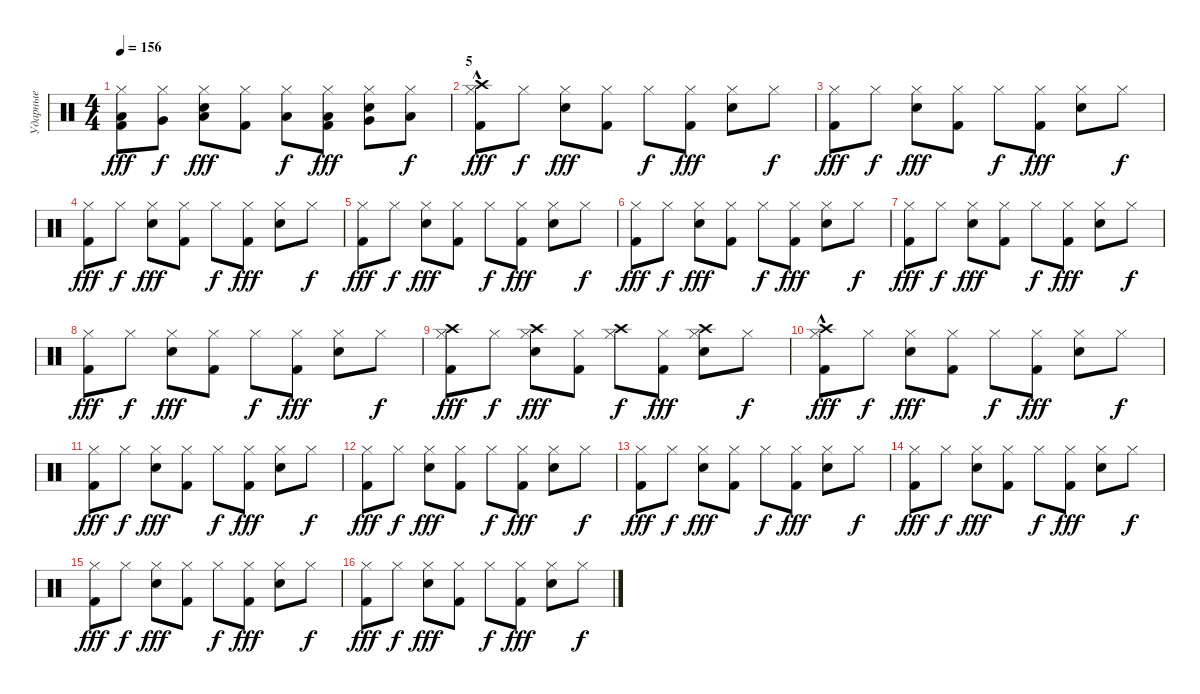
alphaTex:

\track ("Ударные" "Ударные") {instrument percussion}
\staff {score}
\articulation defaults
\ts (4 4)
\tempo 156
\clef neutral
\ks c
("Hi-Hat (closed)" "Kick (hit) 2" "Low Floor Tom (hit)").8{dy fff} ("Hi-Hat (closed)" "Very Low Tom (hit)").8{dy f} ("Hi-Hat (closed)" "Snare (hit) 2" "Low Tom (hit)").8{dy fff} ("Hi-Hat (closed)" "Kick (hit) 2").8 ("Hi-Hat (closed)" "Low Floor Tom (hit)").8{dy f} ("Hi-Hat (closed)" "Kick (hit) 2" "Low Floor Tom (hit)").8{dy fff} ("Hi-Hat (closed)" "Snare (hit) 2" "Very Low Tom (hit)").8 ("Hi-Hat (closed)" "Low Tom (hit)").8{dy f} |
\section ("" "5")
("Hi-Hat (closed)" "Kick (hit) 2" "Crash high (hit)"{hac}).8{dy fff} "Hi-Hat (closed)".8{dy f} ("Hi-Hat (closed)" "Snare (hit) 2").8{dy fff} ("Hi-Hat (closed)" "Kick (hit) 2").8 "Hi-Hat (closed)".8{dy f} ("Hi-Hat (closed)" "Kick (hit) 2").8{dy fff} ("Hi-Hat (closed)" "Snare (hit) 2").8 "Hi-Hat (closed)".8{dy f} |
("Hi-Hat (closed)" "Kick (hit) 2").8{dy fff} "Hi-Hat (closed)".8{dy f} ("Hi-Hat (closed)" "Snare (hit) 2").8{dy fff} ("Hi-Hat (closed)" "Kick (hit) 2").8 "Hi-Hat (closed)".8{dy f} ("Hi-Hat (closed)" "Kick (hit) 2").8{dy fff} ("Hi-Hat (closed)" "Snare (hit) 2").8 "Hi-Hat (closed)".8{dy f} |
("Hi-Hat (closed)" "Kick (hit) 2").8{dy fff} "Hi-Hat (closed)".8{dy f} ("Hi-Hat (closed)" "Snare (hit) 2").8{dy fff} ("Hi-Hat (closed)" "Kick (hit) 2").8 "Hi-Hat (closed)".8{dy f} ("Hi-Hat (closed)" "Kick (hit) 2").8{dy fff} ("Hi-Hat (closed)" "Snare (hit) 2").8 "Hi-Hat (closed)".8{dy f} |
("Hi-Hat (closed)" "Kick (hit) 2").8{dy fff} "Hi-Hat (closed)".8{dy f} ("Hi-Hat (closed)" "Snare (hit) 2").8{dy fff} ("Hi-Hat (closed)" "Kick (hit) 2").8 "Hi-Hat (closed)".8{dy f} ("Hi-Hat (closed)" "Kick (hit) 2").8{dy fff} ("Hi-Hat (closed)" "Snare (hit) 2").8 "Hi-Hat (closed)".8{dy f} |
("Hi-Hat (closed)" "Kick (hit) 2").8{dy fff} "Hi-Hat (closed)".8{dy f} ("Hi-Hat (closed)" "Snare (hit) 2").8{dy fff} ("Hi-Hat (closed)" "Kick (hit) 2").8 "Hi-Hat (closed)".8{dy f} ("Hi-Hat (closed)" "Kick (hit) 2").8{dy fff} ("Hi-Hat (closed)" "Snare (hit) 2").8 "Hi-Hat (closed)".8{dy f} |
("Hi-Hat (closed)" "Kick (hit) 2").8{dy fff} "Hi-Hat (closed)".8{dy f} ("Hi-Hat (closed)" "Snare (hit) 2").8{dy fff} ("Hi-Hat (closed)" "Kick (hit) 2").8 "Hi-Hat (closed)".8{dy f} ("Hi-Hat (closed)" "Kick (hit) 2").8{dy fff} ("Hi-Hat (closed)" "Snare (hit) 2").8 "Hi-Hat (closed)".8{dy f} |
("Hi-Hat (closed)" "Kick (hit) 2").8{dy fff} "Hi-Hat (closed)".8{dy f} ("Hi-Hat (closed)" "Snare (hit) 2").8{dy fff} ("Hi-Hat (closed)" "Kick (hit) 2").8 "Hi-Hat (closed)".8{dy f} ("Hi-Hat (closed)" "Kick (hit) 2").8{dy fff} ("Hi-Hat (closed)" "Snare (hit) 2").8 "Hi-Hat (closed)".8{dy f} |
("Hi-Hat (closed)" "Kick (hit) 2" "Crash high (hit)").8{dy fff} "Hi-Hat (closed)".8{dy f} ("Hi-Hat (closed)" "Snare (hit) 2" "Crash high (hit)").8{dy fff} ("Hi-Hat (closed)" "Kick (hit) 2").8 ("Hi-Hat (closed)" "Crash high (hit)").8{dy f} ("Hi-Hat (closed)" "Kick (hit) 2").8{dy fff} ("Hi-Hat (closed)" "Snare (hit) 2" "Crash high (hit)").8 "Hi-Hat (closed)".8{dy f} |
("Hi-Hat (closed)" "Kick (hit) 2" "Crash high (hit)"{hac}).8{dy fff} "Hi-Hat (closed)".8{dy f} ("Hi-Hat (closed)" "Snare (hit) 2").8{dy fff} ("Hi-Hat (closed)" "Kick (hit) 2").8 "Hi-Hat (closed)".8{dy f} ("Hi-Hat (closed)" "Kick (hit) 2").8{dy fff} ("Hi-Hat (closed)" "Snare (hit) 2").8 "Hi-Hat (closed)".8{dy f} |
("Hi-Hat (closed)" "Kick (hit) 2").8{dy fff} "Hi-Hat (closed)".8{dy f} ("Hi-Hat (closed)" "Snare (hit) 2").8{dy fff} ("Hi-Hat (closed)" "Kick (hit) 2").8 "Hi-Hat (closed)".8{dy f} ("Hi-Hat (closed)" "Kick (hit) 2").8{dy fff} ("Hi-Hat (closed)" "Snare (hit) 2").8 "Hi-Hat (closed)".8{dy f} |
("Hi-Hat (closed)" "Kick (hit) 2").8{dy fff} "Hi-Hat (closed)".8{dy f} ("Hi-Hat (closed)" "Snare (hit) 2").8{dy fff} ("Hi-Hat (closed)" "Kick (hit) 2").8 "Hi-Hat (closed)".8{dy f} ("Hi-Hat (closed)" "Kick (hit) 2").8{dy fff} ("Hi-Hat (closed)" "Snare (hit) 2").8 "Hi-Hat (closed)".8{dy f} |
("Hi-Hat (closed)" "Kick (hit) 2").8{dy fff} "Hi-Hat (closed)".8{dy f} ("Hi-Hat (closed)" "Snare (hit) 2").8{dy fff} ("Hi-Hat (closed)" "Kick (hit) 2").8 "Hi-Hat (closed)".8{dy f} ("Hi-Hat (closed)" "Kick (hit) 2").8{dy fff} ("Hi-Hat (closed)" "Snare (hit) 2").8 "Hi-Hat (closed)".8{dy f} |
("Hi-Hat (closed)" "Kick (hit) 2").8{dy fff} "Hi-Hat (closed)".8{dy f} ("Hi-Hat (closed)" "Snare (hit) 2").8{dy fff} ("Hi-Hat (closed)" "Kick (hit) 2").8 "Hi-Hat (closed)".8{dy f} ("Hi-Hat (closed)" "Kick (hit) 2").8{dy fff} ("Hi-Hat (closed)" "Snare (hit) 2").8 "Hi-Hat (closed)".8{dy f} |
("Hi-Hat (closed)" "Kick (hit) 2").8{dy fff} "Hi-Hat (closed)".8{dy f} ("Hi-Hat (closed)" "Snare (hit) 2").8{dy fff} ("Hi-Hat (closed)" "Kick (hit) 2").8 "Hi-Hat (closed)".8{dy f} ("Hi-Hat (closed)" "Kick (hit) 2").8{dy fff} ("Hi-Hat (closed)" "Snare (hit) 2").8 "Hi-Hat (closed)".8{dy f} |
("Hi-Hat (closed)" "Kick (hit) 2").8{dy fff} "Hi-Hat (closed)".8{dy f} ("Hi-Hat (closed)" "Snare (hit) 2").8{dy fff} ("Hi-Hat (closed)" "Kick (hit) 2").8 "Hi-Hat (closed)".8{dy f} ("Hi-Hat (closed)" "Kick (hit) 2").8{dy fff} ("Hi-Hat (closed)" "Snare (hit) 2").8 "Hi-Hat (closed)".8{dy f}
